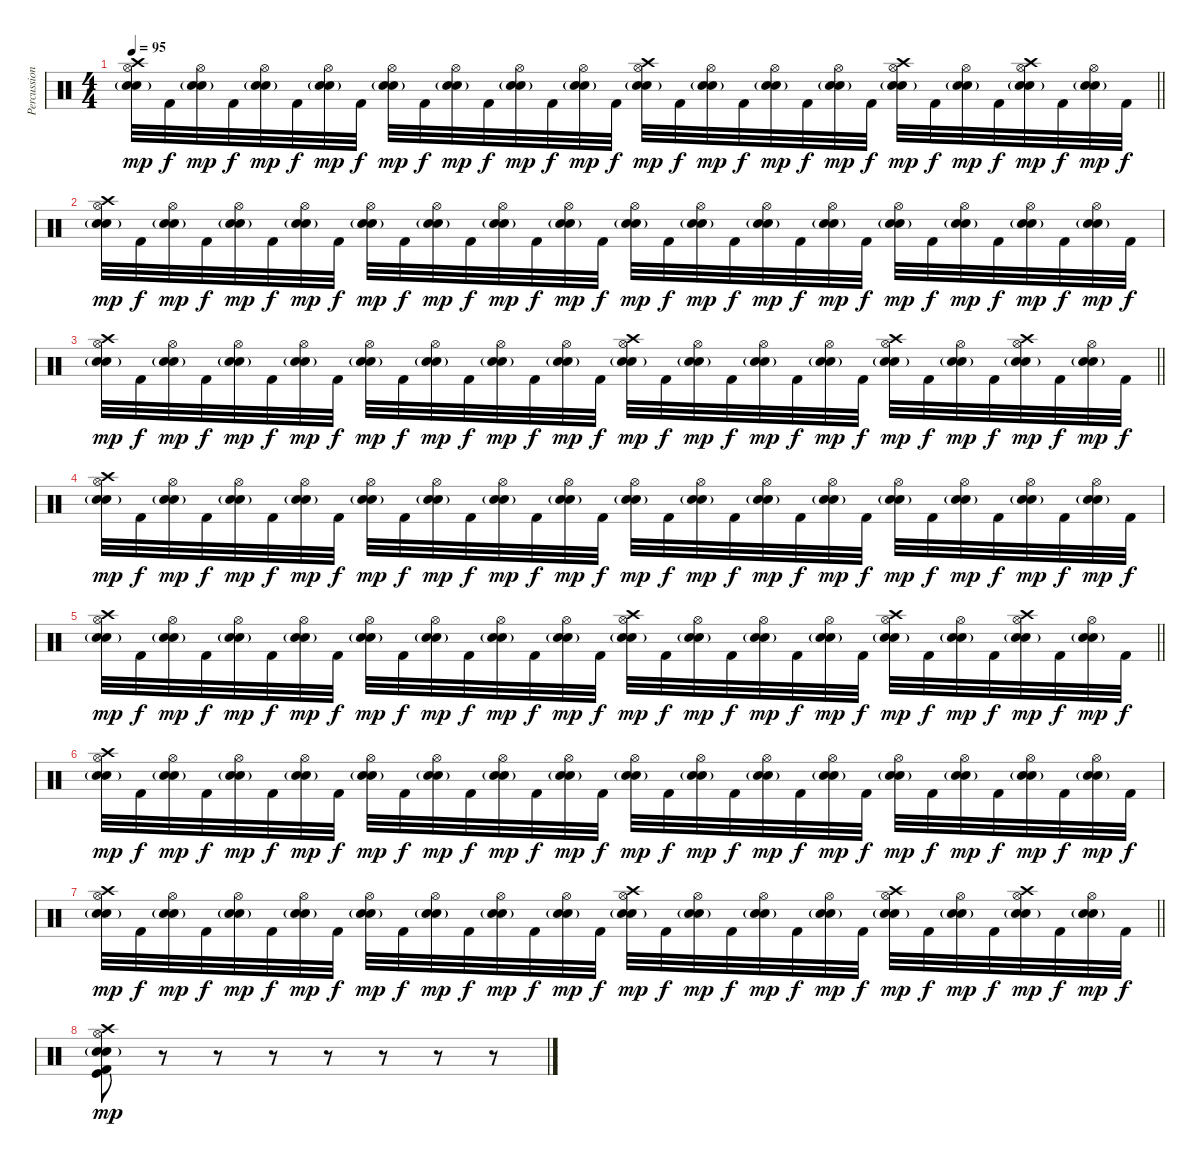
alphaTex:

\track ("Percussion" "Percussion") {instrument percussion}
\staff {score}
\articulation defaults
\ts (4 4)
\tempo 95
\clef neutral
\barLineRight lightlight
\ks c
("Crash high (hit)" "Electric Snare (hit)" "Snare (hit) 2"{g} "Hi-Hat (open)").32{dy mp} "Kick (hit) 2".32{dy f} ("Electric Snare (hit)" "Snare (hit) 2"{g} "Hi-Hat (open)").32{dy mp} "Kick (hit) 2".32{dy f} ("Electric Snare (hit)" "Snare (hit) 2"{g} "Hi-Hat (open)").32{dy mp} "Kick (hit) 2".32{dy f} ("Electric Snare (hit)" "Snare (hit) 2"{g} "Hi-Hat (open)").32{dy mp} "Kick (hit) 2".32{dy f} ("Electric Snare (hit)" "Snare (hit) 2"{g} "Hi-Hat (open)").32{dy mp} "Kick (hit) 2".32{dy f} ("Electric Snare (hit)" "Snare (hit) 2"{g} "Hi-Hat (open)").32{dy mp} "Kick (hit) 2".32{dy f} ("Electric Snare (hit)" "Snare (hit) 2"{g} "Hi-Hat (open)").32{dy mp} "Kick (hit) 2".32{dy f} ("Electric Snare (hit)" "Snare (hit) 2"{g} "Hi-Hat (open)").32{dy mp} "Kick (hit) 2".32{dy f} ("Crash high (hit)" "Electric Snare (hit)" "Snare (hit) 2"{g} "Hi-Hat (open)").32{dy mp} "Kick (hit) 2".32{dy f} ("Electric Snare (hit)" "Snare (hit) 2"{g} "Hi-Hat (open)").32{dy mp} "Kick (hit) 2".32{dy f} ("Electric Snare (hit)" "Snare (hit) 2"{g} "Hi-Hat (open)").32{dy mp} "Kick (hit) 2".32{dy f} ("Electric Snare (hit)" "Snare (hit) 2"{g} "Hi-Hat (open)").32{dy mp} "Kick (hit) 2".32{dy f} ("Crash high (hit)" "Electric Snare (hit)" "Snare (hit) 2"{g} "Hi-Hat (open)").32{dy mp} "Kick (hit) 2".32{dy f} ("Electric Snare (hit)" "Snare (hit) 2"{g} "Hi-Hat (open)").32{dy mp} "Kick (hit) 2".32{dy f} ("Crash high (hit)" "Electric Snare (hit)" "Snare (hit) 2"{g} "Hi-Hat (open)").32{dy mp} "Kick (hit) 2".32{dy f} ("Electric Snare (hit)" "Snare (hit) 2"{g} "Hi-Hat (open)").32{dy mp} "Kick (hit) 2".32{dy f} |
("Crash high (hit)" "Electric Snare (hit)" "Snare (hit) 2"{g} "Hi-Hat (open)").32{dy mp} "Kick (hit) 2".32{dy f} ("Electric Snare (hit)" "Snare (hit) 2"{g} "Hi-Hat (open)").32{dy mp} "Kick (hit) 2".32{dy f} ("Electric Snare (hit)" "Snare (hit) 2"{g} "Hi-Hat (open)").32{dy mp} "Kick (hit) 2".32{dy f} ("Electric Snare (hit)" "Snare (hit) 2"{g} "Hi-Hat (open)").32{dy mp} "Kick (hit) 2".32{dy f} ("Electric Snare (hit)" "Snare (hit) 2"{g} "Hi-Hat (open)").32{dy mp} "Kick (hit) 2".32{dy f} ("Electric Snare (hit)" "Snare (hit) 2"{g} "Hi-Hat (open)").32{dy mp} "Kick (hit) 2".32{dy f} ("Electric Snare (hit)" "Snare (hit) 2"{g} "Hi-Hat (open)").32{dy mp} "Kick (hit) 2".32{dy f} ("Electric Snare (hit)" "Snare (hit) 2"{g} "Hi-Hat (open)").32{dy mp} "Kick (hit) 2".32{dy f} ("Electric Snare (hit)" "Snare (hit) 2"{g} "Hi-Hat (open)").32{dy mp} "Kick (hit) 2".32{dy f} ("Electric Snare (hit)" "Snare (hit) 2"{g} "Hi-Hat (open)").32{dy mp} "Kick (hit) 2".32{dy f} ("Electric Snare (hit)" "Snare (hit) 2"{g} "Hi-Hat (open)").32{dy mp} "Kick (hit) 2".32{dy f} ("Electric Snare (hit)" "Snare (hit) 2"{g} "Hi-Hat (open)").32{dy mp} "Kick (hit) 2".32{dy f} ("Electric Snare (hit)" "Snare (hit) 2"{g} "Hi-Hat (open)").32{dy mp} "Kick (hit) 2".32{dy f} ("Electric Snare (hit)" "Snare (hit) 2"{g} "Hi-Hat (open)").32{dy mp} "Kick (hit) 2".32{dy f} ("Electric Snare (hit)" "Snare (hit) 2"{g} "Hi-Hat (open)").32{dy mp} "Kick (hit) 2".32{dy f} ("Electric Snare (hit)" "Snare (hit) 2"{g} "Hi-Hat (open)").32{dy mp} "Kick (hit) 2".32{dy f} |
\barLineRight lightlight
("Crash high (hit)" "Electric Snare (hit)" "Snare (hit) 2"{g} "Hi-Hat (open)").32{dy mp} "Kick (hit) 2".32{dy f} ("Electric Snare (hit)" "Snare (hit) 2"{g} "Hi-Hat (open)").32{dy mp} "Kick (hit) 2".32{dy f} ("Electric Snare (hit)" "Snare (hit) 2"{g} "Hi-Hat (open)").32{dy mp} "Kick (hit) 2".32{dy f} ("Electric Snare (hit)" "Snare (hit) 2"{g} "Hi-Hat (open)").32{dy mp} "Kick (hit) 2".32{dy f} ("Electric Snare (hit)" "Snare (hit) 2"{g} "Hi-Hat (open)").32{dy mp} "Kick (hit) 2".32{dy f} ("Electric Snare (hit)" "Snare (hit) 2"{g} "Hi-Hat (open)").32{dy mp} "Kick (hit) 2".32{dy f} ("Electric Snare (hit)" "Snare (hit) 2"{g} "Hi-Hat (open)").32{dy mp} "Kick (hit) 2".32{dy f} ("Electric Snare (hit)" "Snare (hit) 2"{g} "Hi-Hat (open)").32{dy mp} "Kick (hit) 2".32{dy f} ("Crash high (hit)" "Electric Snare (hit)" "Snare (hit) 2"{g} "Hi-Hat (open)").32{dy mp} "Kick (hit) 2".32{dy f} ("Electric Snare (hit)" "Snare (hit) 2"{g} "Hi-Hat (open)").32{dy mp} "Kick (hit) 2".32{dy f} ("Electric Snare (hit)" "Snare (hit) 2"{g} "Hi-Hat (open)").32{dy mp} "Kick (hit) 2".32{dy f} ("Electric Snare (hit)" "Snare (hit) 2"{g} "Hi-Hat (open)").32{dy mp} "Kick (hit) 2".32{dy f} ("Crash high (hit)" "Electric Snare (hit)" "Snare (hit) 2"{g} "Hi-Hat (open)").32{dy mp} "Kick (hit) 2".32{dy f} ("Electric Snare (hit)" "Snare (hit) 2"{g} "Hi-Hat (open)").32{dy mp} "Kick (hit) 2".32{dy f} ("Crash high (hit)" "Electric Snare (hit)" "Snare (hit) 2"{g} "Hi-Hat (open)").32{dy mp} "Kick (hit) 2".32{dy f} ("Electric Snare (hit)" "Snare (hit) 2"{g} "Hi-Hat (open)").32{dy mp} "Kick (hit) 2".32{dy f} |
("Crash high (hit)" "Electric Snare (hit)" "Snare (hit) 2"{g} "Hi-Hat (open)").32{dy mp} "Kick (hit) 2".32{dy f} ("Electric Snare (hit)" "Snare (hit) 2"{g} "Hi-Hat (open)").32{dy mp} "Kick (hit) 2".32{dy f} ("Electric Snare (hit)" "Snare (hit) 2"{g} "Hi-Hat (open)").32{dy mp} "Kick (hit) 2".32{dy f} ("Electric Snare (hit)" "Snare (hit) 2"{g} "Hi-Hat (open)").32{dy mp} "Kick (hit) 2".32{dy f} ("Electric Snare (hit)" "Snare (hit) 2"{g} "Hi-Hat (open)").32{dy mp} "Kick (hit) 2".32{dy f} ("Electric Snare (hit)" "Snare (hit) 2"{g} "Hi-Hat (open)").32{dy mp} "Kick (hit) 2".32{dy f} ("Electric Snare (hit)" "Snare (hit) 2"{g} "Hi-Hat (open)").32{dy mp} "Kick (hit) 2".32{dy f} ("Electric Snare (hit)" "Snare (hit) 2"{g} "Hi-Hat (open)").32{dy mp} "Kick (hit) 2".32{dy f} ("Electric Snare (hit)" "Snare (hit) 2"{g} "Hi-Hat (open)").32{dy mp} "Kick (hit) 2".32{dy f} ("Electric Snare (hit)" "Snare (hit) 2"{g} "Hi-Hat (open)").32{dy mp} "Kick (hit) 2".32{dy f} ("Electric Snare (hit)" "Snare (hit) 2"{g} "Hi-Hat (open)").32{dy mp} "Kick (hit) 2".32{dy f} ("Electric Snare (hit)" "Snare (hit) 2"{g} "Hi-Hat (open)").32{dy mp} "Kick (hit) 2".32{dy f} ("Electric Snare (hit)" "Snare (hit) 2"{g} "Hi-Hat (open)").32{dy mp} "Kick (hit) 2".32{dy f} ("Electric Snare (hit)" "Snare (hit) 2"{g} "Hi-Hat (open)").32{dy mp} "Kick (hit) 2".32{dy f} ("Electric Snare (hit)" "Snare (hit) 2"{g} "Hi-Hat (open)").32{dy mp} "Kick (hit) 2".32{dy f} ("Electric Snare (hit)" "Snare (hit) 2"{g} "Hi-Hat (open)").32{dy mp} "Kick (hit) 2".32{dy f} |
\barLineRight lightlight
("Crash high (hit)" "Electric Snare (hit)" "Snare (hit) 2"{g} "Hi-Hat (open)").32{dy mp} "Kick (hit) 2".32{dy f} ("Electric Snare (hit)" "Snare (hit) 2"{g} "Hi-Hat (open)").32{dy mp} "Kick (hit) 2".32{dy f} ("Electric Snare (hit)" "Snare (hit) 2"{g} "Hi-Hat (open)").32{dy mp} "Kick (hit) 2".32{dy f} ("Electric Snare (hit)" "Snare (hit) 2"{g} "Hi-Hat (open)").32{dy mp} "Kick (hit) 2".32{dy f} ("Electric Snare (hit)" "Snare (hit) 2"{g} "Hi-Hat (open)").32{dy mp} "Kick (hit) 2".32{dy f} ("Electric Snare (hit)" "Snare (hit) 2"{g} "Hi-Hat (open)").32{dy mp} "Kick (hit) 2".32{dy f} ("Electric Snare (hit)" "Snare (hit) 2"{g} "Hi-Hat (open)").32{dy mp} "Kick (hit) 2".32{dy f} ("Electric Snare (hit)" "Snare (hit) 2"{g} "Hi-Hat (open)").32{dy mp} "Kick (hit) 2".32{dy f} ("Crash high (hit)" "Electric Snare (hit)" "Snare (hit) 2"{g} "Hi-Hat (open)").32{dy mp} "Kick (hit) 2".32{dy f} ("Electric Snare (hit)" "Snare (hit) 2"{g} "Hi-Hat (open)").32{dy mp} "Kick (hit) 2".32{dy f} ("Electric Snare (hit)" "Snare (hit) 2"{g} "Hi-Hat (open)").32{dy mp} "Kick (hit) 2".32{dy f} ("Electric Snare (hit)" "Snare (hit) 2"{g} "Hi-Hat (open)").32{dy mp} "Kick (hit) 2".32{dy f} ("Crash high (hit)" "Electric Snare (hit)" "Snare (hit) 2"{g} "Hi-Hat (open)").32{dy mp} "Kick (hit) 2".32{dy f} ("Electric Snare (hit)" "Snare (hit) 2"{g} "Hi-Hat (open)").32{dy mp} "Kick (hit) 2".32{dy f} ("Crash high (hit)" "Electric Snare (hit)" "Snare (hit) 2"{g} "Hi-Hat (open)").32{dy mp} "Kick (hit) 2".32{dy f} ("Electric Snare (hit)" "Snare (hit) 2"{g} "Hi-Hat (open)").32{dy mp} "Kick (hit) 2".32{dy f} |
("Crash high (hit)" "Electric Snare (hit)" "Snare (hit) 2"{g} "Hi-Hat (open)").32{dy mp} "Kick (hit) 2".32{dy f} ("Electric Snare (hit)" "Snare (hit) 2"{g} "Hi-Hat (open)").32{dy mp} "Kick (hit) 2".32{dy f} ("Electric Snare (hit)" "Snare (hit) 2"{g} "Hi-Hat (open)").32{dy mp} "Kick (hit) 2".32{dy f} ("Electric Snare (hit)" "Snare (hit) 2"{g} "Hi-Hat (open)").32{dy mp} "Kick (hit) 2".32{dy f} ("Electric Snare (hit)" "Snare (hit) 2"{g} "Hi-Hat (open)").32{dy mp} "Kick (hit) 2".32{dy f} ("Electric Snare (hit)" "Snare (hit) 2"{g} "Hi-Hat (open)").32{dy mp} "Kick (hit) 2".32{dy f} ("Electric Snare (hit)" "Snare (hit) 2"{g} "Hi-Hat (open)").32{dy mp} "Kick (hit) 2".32{dy f} ("Electric Snare (hit)" "Snare (hit) 2"{g} "Hi-Hat (open)").32{dy mp} "Kick (hit) 2".32{dy f} ("Electric Snare (hit)" "Snare (hit) 2"{g} "Hi-Hat (open)").32{dy mp} "Kick (hit) 2".32{dy f} ("Electric Snare (hit)" "Snare (hit) 2"{g} "Hi-Hat (open)").32{dy mp} "Kick (hit) 2".32{dy f} ("Electric Snare (hit)" "Snare (hit) 2"{g} "Hi-Hat (open)").32{dy mp} "Kick (hit) 2".32{dy f} ("Electric Snare (hit)" "Snare (hit) 2"{g} "Hi-Hat (open)").32{dy mp} "Kick (hit) 2".32{dy f} ("Electric Snare (hit)" "Snare (hit) 2"{g} "Hi-Hat (open)").32{dy mp} "Kick (hit) 2".32{dy f} ("Electric Snare (hit)" "Snare (hit) 2"{g} "Hi-Hat (open)").32{dy mp} "Kick (hit) 2".32{dy f} ("Electric Snare (hit)" "Snare (hit) 2"{g} "Hi-Hat (open)").32{dy mp} "Kick (hit) 2".32{dy f} ("Electric Snare (hit)" "Snare (hit) 2"{g} "Hi-Hat (open)").32{dy mp} "Kick (hit) 2".32{dy f} |
\barLineRight lightlight
("Crash high (hit)" "Electric Snare (hit)" "Snare (hit) 2"{g} "Hi-Hat (open)").32{dy mp} "Kick (hit) 2".32{dy f} ("Electric Snare (hit)" "Snare (hit) 2"{g} "Hi-Hat (open)").32{dy mp} "Kick (hit) 2".32{dy f} ("Electric Snare (hit)" "Snare (hit) 2"{g} "Hi-Hat (open)").32{dy mp} "Kick (hit) 2".32{dy f} ("Electric Snare (hit)" "Snare (hit) 2"{g} "Hi-Hat (open)").32{dy mp} "Kick (hit) 2".32{dy f} ("Electric Snare (hit)" "Snare (hit) 2"{g} "Hi-Hat (open)").32{dy mp} "Kick (hit) 2".32{dy f} ("Electric Snare (hit)" "Snare (hit) 2"{g} "Hi-Hat (open)").32{dy mp} "Kick (hit) 2".32{dy f} ("Electric Snare (hit)" "Snare (hit) 2"{g} "Hi-Hat (open)").32{dy mp} "Kick (hit) 2".32{dy f} ("Electric Snare (hit)" "Snare (hit) 2"{g} "Hi-Hat (open)").32{dy mp} "Kick (hit) 2".32{dy f} ("Crash high (hit)" "Electric Snare (hit)" "Snare (hit) 2"{g} "Hi-Hat (open)").32{dy mp} "Kick (hit) 2".32{dy f} ("Electric Snare (hit)" "Snare (hit) 2"{g} "Hi-Hat (open)").32{dy mp} "Kick (hit) 2".32{dy f} ("Electric Snare (hit)" "Snare (hit) 2"{g} "Hi-Hat (open)").32{dy mp} "Kick (hit) 2".32{dy f} ("Electric Snare (hit)" "Snare (hit) 2"{g} "Hi-Hat (open)").32{dy mp} "Kick (hit) 2".32{dy f} ("Crash high (hit)" "Electric Snare (hit)" "Snare (hit) 2"{g} "Hi-Hat (open)").32{dy mp} "Kick (hit) 2".32{dy f} ("Electric Snare (hit)" "Snare (hit) 2"{g} "Hi-Hat (open)").32{dy mp} "Kick (hit) 2".32{dy f} ("Crash high (hit)" "Electric Snare (hit)" "Snare (hit) 2"{g} "Hi-Hat (open)").32{dy mp} "Kick (hit) 2".32{dy f} ("Electric Snare (hit)" "Snare (hit) 2"{g} "Hi-Hat (open)").32{dy mp} "Kick (hit) 2".32{dy f} |
("Crash high (hit)" "Electric Snare (hit)" "Snare (hit) 2"{g} "Kick (hit) 2" "Kick (hit)" "Hi-Hat (open)").8{dy mp} r.8 r.8 r.8 r.8 r.8 r.8 r.8
